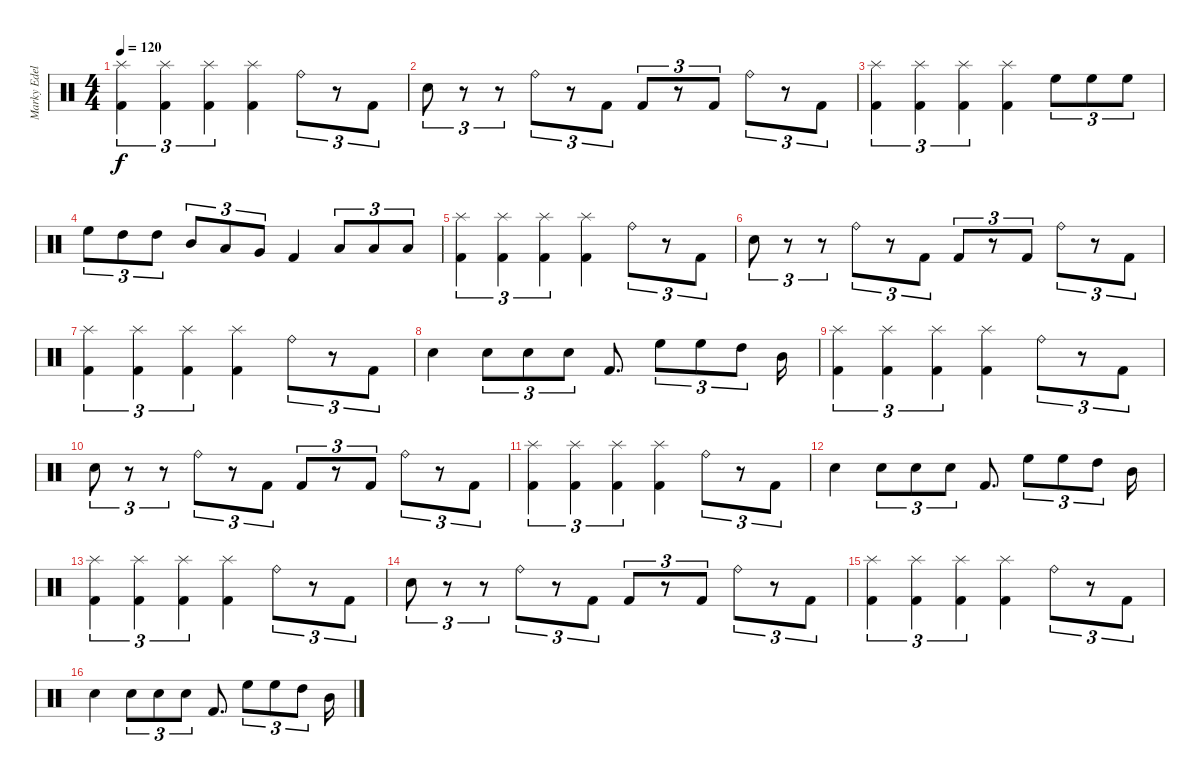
\track ("Marky Edelmann" "Marky Edel") {instrument percussion}
\staff {score}
\articulation defaults
\ts (4 4)
\tempo 120
\clef neutral
\ks c
("Splash (hit)" "Kick (hit) 2").4{tu (3 2) dy f} ("Splash (hit)" "Kick (hit) 2").4{tu (3 2)} ("Splash (hit)" "Kick (hit) 2").4{tu (3 2)} ("Splash (hit)" "Kick (hit) 2").4 "Ride (bell)".8{tu (3 2)} r.8{tu (3 2)} "Kick (hit) 2".8{tu (3 2)} |
"Snare (hit) 2".8{tu (3 2)} r.8{tu (3 2)} r.8{tu (3 2)} "Ride (bell)".8{tu (3 2)} r.8{tu (3 2)} "Kick (hit) 2".8{tu (3 2)} "Kick (hit) 2".8{tu (3 2)} r.8{tu (3 2)} "Kick (hit) 2".8{tu (3 2)} "Ride (bell)".8{tu (3 2)} r.8{tu (3 2)} "Kick (hit) 2".8{tu (3 2)} |
("Splash (hit)" "Kick (hit) 2").4{tu (3 2)} ("Splash (hit)" "Kick (hit) 2").4{tu (3 2)} ("Splash (hit)" "Kick (hit) 2").4{tu (3 2)} ("Splash (hit)" "Kick (hit) 2").4 "High Floor Tom (hit)".8{tu (3 2)} "High Floor Tom (hit)".8{tu (3 2)} "High Floor Tom (hit)".8{tu (3 2)} |
"High Floor Tom (hit)".8{tu (3 2)} "High Tom (hit)".8{tu (3 2)} "High Tom (hit)".8{tu (3 2)} "Mid Tom (hit)".8{tu (3 2)} "Low Tom (hit)".8{tu (3 2)} "Very Low Tom (hit)".8{tu (3 2)} "Kick (hit) 2".4 "Low Floor Tom (hit)".8{tu (3 2)} "Low Floor Tom (hit)".8{tu (3 2)} "Low Floor Tom (hit)".8{tu (3 2)} |
("Splash (hit)" "Kick (hit) 2").4{tu (3 2)} ("Splash (hit)" "Kick (hit) 2").4{tu (3 2)} ("Splash (hit)" "Kick (hit) 2").4{tu (3 2)} ("Splash (hit)" "Kick (hit) 2").4 "Ride (bell)".8{tu (3 2)} r.8{tu (3 2)} "Kick (hit) 2".8{tu (3 2)} |
"Snare (hit) 2".8{tu (3 2)} r.8{tu (3 2)} r.8{tu (3 2)} "Ride (bell)".8{tu (3 2)} r.8{tu (3 2)} "Kick (hit) 2".8{tu (3 2)} "Kick (hit) 2".8{tu (3 2)} r.8{tu (3 2)} "Kick (hit) 2".8{tu (3 2)} "Ride (bell)".8{tu (3 2)} r.8{tu (3 2)} "Kick (hit) 2".8{tu (3 2)} |
("Splash (hit)" "Kick (hit) 2").4{tu (3 2)} ("Splash (hit)" "Kick (hit) 2").4{tu (3 2)} ("Splash (hit)" "Kick (hit) 2").4{tu (3 2)} ("Splash (hit)" "Kick (hit) 2").4 "Ride (bell)".8{tu (3 2)} r.8{tu (3 2)} "Kick (hit) 2".8{tu (3 2)} |
"Snare (hit) 2".4 "Snare (hit) 2".8{tu (3 2)} "Snare (hit) 2".8{tu (3 2)} "Snare (hit) 2".8{tu (3 2)} "Kick (hit) 2".8{d} "High Floor Tom (hit)".8{tu (3 2)} "High Floor Tom (hit)".8{tu (3 2)} "High Tom (hit)".8{tu (3 2)} "Mid Tom (hit)".16 |
("Splash (hit)" "Kick (hit) 2").4{tu (3 2)} ("Splash (hit)" "Kick (hit) 2").4{tu (3 2)} ("Splash (hit)" "Kick (hit) 2").4{tu (3 2)} ("Splash (hit)" "Kick (hit) 2").4 "Ride (bell)".8{tu (3 2)} r.8{tu (3 2)} "Kick (hit) 2".8{tu (3 2)} |
"Snare (hit) 2".8{tu (3 2)} r.8{tu (3 2)} r.8{tu (3 2)} "Ride (bell)".8{tu (3 2)} r.8{tu (3 2)} "Kick (hit) 2".8{tu (3 2)} "Kick (hit) 2".8{tu (3 2)} r.8{tu (3 2)} "Kick (hit) 2".8{tu (3 2)} "Ride (bell)".8{tu (3 2)} r.8{tu (3 2)} "Kick (hit) 2".8{tu (3 2)} |
("Splash (hit)" "Kick (hit) 2").4{tu (3 2)} ("Splash (hit)" "Kick (hit) 2").4{tu (3 2)} ("Splash (hit)" "Kick (hit) 2").4{tu (3 2)} ("Splash (hit)" "Kick (hit) 2").4 "Ride (bell)".8{tu (3 2)} r.8{tu (3 2)} "Kick (hit) 2".8{tu (3 2)} |
"Snare (hit) 2".4 "Snare (hit) 2".8{tu (3 2)} "Snare (hit) 2".8{tu (3 2)} "Snare (hit) 2".8{tu (3 2)} "Kick (hit) 2".8{d} "High Floor Tom (hit)".8{tu (3 2)} "High Floor Tom (hit)".8{tu (3 2)} "High Tom (hit)".8{tu (3 2)} "Mid Tom (hit)".16 |
("Splash (hit)" "Kick (hit) 2").4{tu (3 2)} ("Splash (hit)" "Kick (hit) 2").4{tu (3 2)} ("Splash (hit)" "Kick (hit) 2").4{tu (3 2)} ("Splash (hit)" "Kick (hit) 2").4 "Ride (bell)".8{tu (3 2)} r.8{tu (3 2)} "Kick (hit) 2".8{tu (3 2)} |
"Snare (hit) 2".8{tu (3 2)} r.8{tu (3 2)} r.8{tu (3 2)} "Ride (bell)".8{tu (3 2)} r.8{tu (3 2)} "Kick (hit) 2".8{tu (3 2)} "Kick (hit) 2".8{tu (3 2)} r.8{tu (3 2)} "Kick (hit) 2".8{tu (3 2)} "Ride (bell)".8{tu (3 2)} r.8{tu (3 2)} "Kick (hit) 2".8{tu (3 2)} |
("Splash (hit)" "Kick (hit) 2").4{tu (3 2)} ("Splash (hit)" "Kick (hit) 2").4{tu (3 2)} ("Splash (hit)" "Kick (hit) 2").4{tu (3 2)} ("Splash (hit)" "Kick (hit) 2").4 "Ride (bell)".8{tu (3 2)} r.8{tu (3 2)} "Kick (hit) 2".8{tu (3 2)} |
"Snare (hit) 2".4 "Snare (hit) 2".8{tu (3 2)} "Snare (hit) 2".8{tu (3 2)} "Snare (hit) 2".8{tu (3 2)} "Kick (hit) 2".8{d} "High Floor Tom (hit)".8{tu (3 2)} "High Floor Tom (hit)".8{tu (3 2)} "High Tom (hit)".8{tu (3 2)} "Mid Tom (hit)".16
